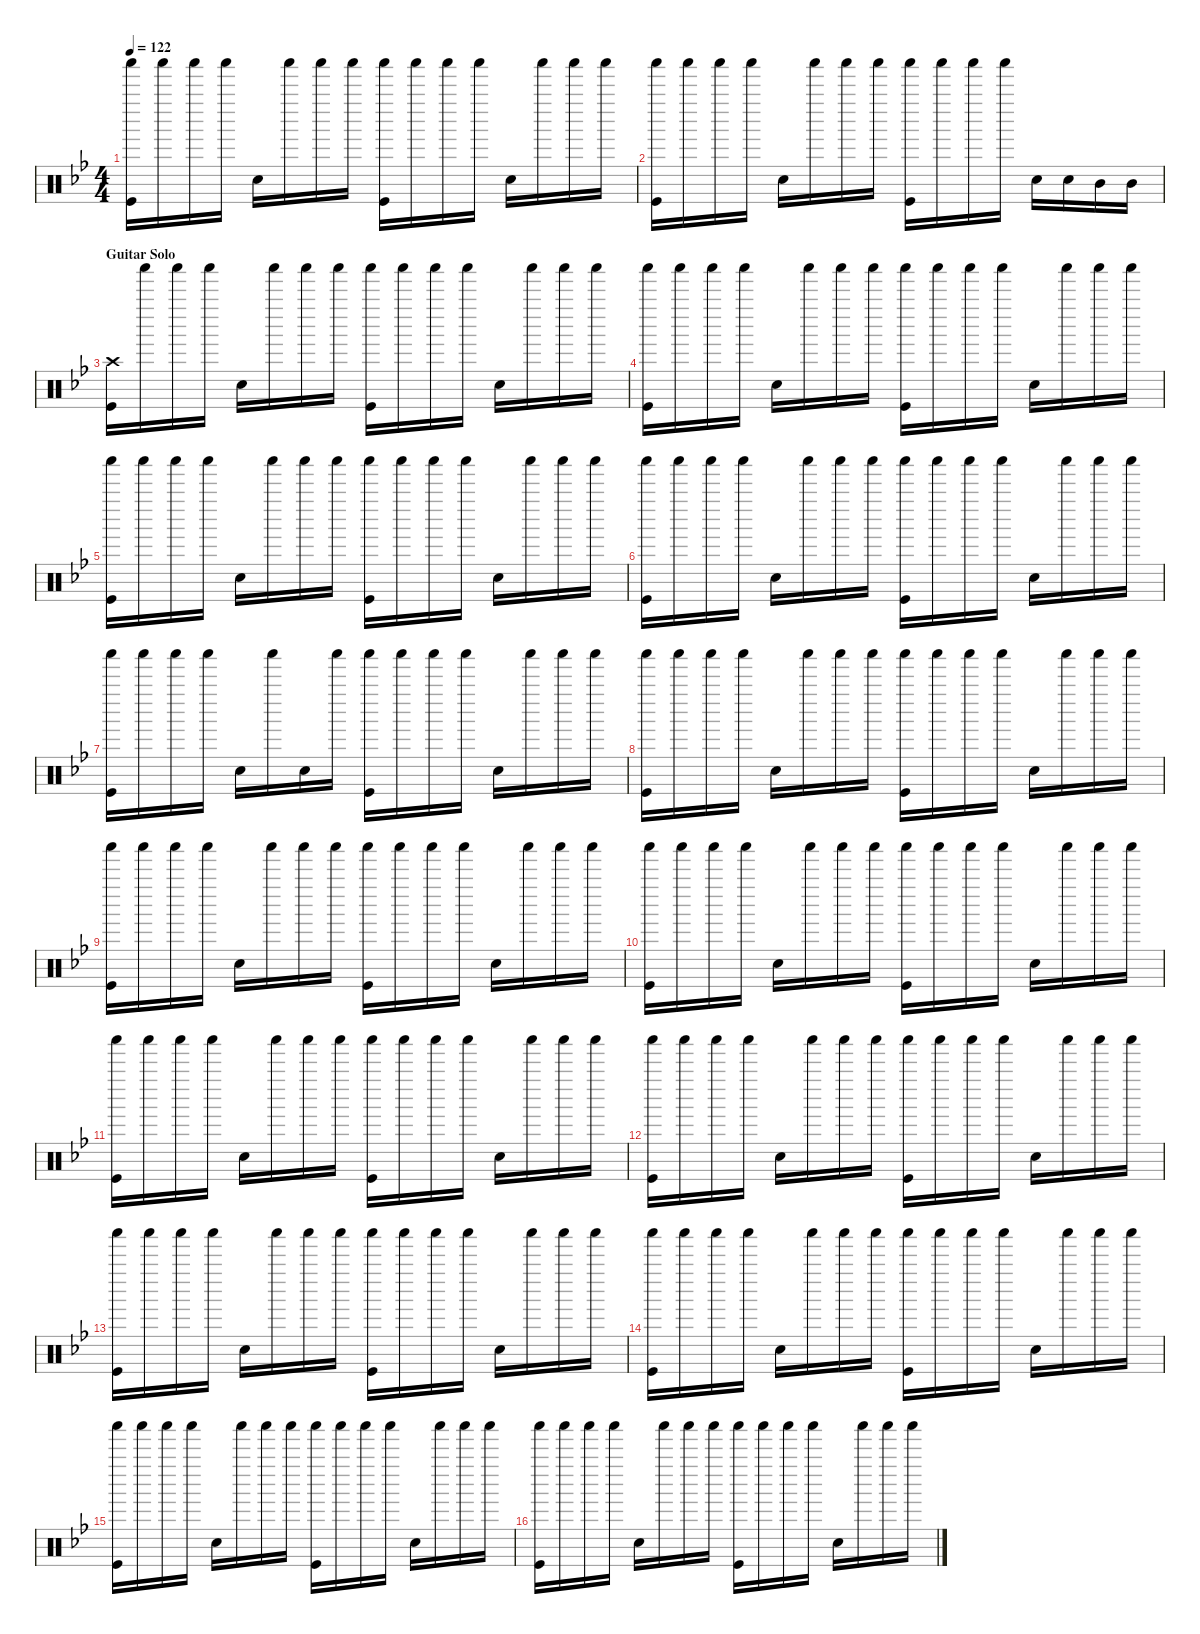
\defaultSystemsLayout 4
\hideDynamics
\bracketExtendMode nobrackets
\singleTrackTrackNamePolicy hidden
\multiTrackTrackNamePolicy hidden
\firstSystemTrackNameMode fullname
\firstSystemTrackNameOrientation horizontal
\otherSystemsTrackNameOrientation horizontal
\track ("Percussions" "drm.") {instrument percussion}
\staff {score}
\articulation defaults
\ts (4 4)
\tempo 122
\clef neutral
\ks bb
("Shaker (hit)"{acc forcenatural} "Kick (hit)"{acc forcenatural}).16{dy f beam Down} "Shaker (hit)"{acc forcenatural}.16{dy mp beam Down} "Shaker (hit)"{acc forcenatural}.16{beam Down} "Shaker (hit)"{acc forcenatural}.16{beam Down} "Snare (hit) 2"{acc forcenatural}.16{dy f beam Down} "Shaker (hit)"{acc forcenatural}.16{dy mp beam Down} "Shaker (hit)"{acc forcenatural}.16{beam Down} "Shaker (hit)"{acc forcenatural}.16{beam Down} ("Shaker (hit)"{acc forcenatural} "Kick (hit)"{acc forcenatural}).16{dy f beam Down} "Shaker (hit)"{acc forcenatural}.16{dy mp beam Down} "Shaker (hit)"{acc forcenatural}.16{beam Down} "Shaker (hit)"{acc forcenatural}.16{beam Down} "Snare (hit) 2"{acc forcenatural}.16{dy f beam Down} "Shaker (hit)"{acc forcenatural}.16{dy mp beam Down} "Shaker (hit)"{acc forcenatural}.16{beam Down} "Shaker (hit)"{acc forcenatural}.16{beam Down} |
("Shaker (hit)"{acc forcenatural} "Kick (hit)"{acc forcenatural}).16{dy f beam Down} "Shaker (hit)"{acc forcenatural}.16{dy mp beam Down} "Shaker (hit)"{acc forcenatural}.16{beam Down} "Shaker (hit)"{acc forcenatural}.16{beam Down} "Snare (hit) 2"{acc forcenatural}.16{dy f beam Down} "Shaker (hit)"{acc forcenatural}.16{dy mp beam Down} "Shaker (hit)"{acc forcenatural}.16{beam Down} "Shaker (hit)"{acc forcenatural}.16{beam Down} ("Shaker (hit)"{acc forcenatural} "Kick (hit)"{acc forcenatural}).16{dy f beam Down} "Shaker (hit)"{acc forcenatural}.16{dy mp beam Down} "Shaker (hit)"{acc forcenatural}.16{beam Down} "Shaker (hit)"{acc forcenatural}.16{beam Down} "Snare (hit) 2"{acc forcenatural}.16{dy f beam Down} "Snare (hit) 2"{acc forcenatural}.16{beam Down} "Mid Tom (hit)"{acc forcenatural}.16{beam Down} "Mid Tom (hit)"{acc forcenatural}.16{beam Down} |
\section ("" "Guitar Solo")
("Crash high (hit)"{acc forcenatural} "Kick (hit)"{acc forcenatural}).16{beam Down} "Shaker (hit)"{acc forcenatural}.16{dy mp beam Down} "Shaker (hit)"{acc forcenatural}.16{beam Down} "Shaker (hit)"{acc forcenatural}.16{beam Down} "Snare (hit) 2"{acc forcenatural}.16{dy f beam Down} "Shaker (hit)"{acc forcenatural}.16{dy mp beam Down} "Shaker (hit)"{acc forcenatural}.16{beam Down} "Shaker (hit)"{acc forcenatural}.16{beam Down} ("Shaker (hit)"{acc forcenatural} "Kick (hit)"{acc forcenatural}).16{dy f beam Down} "Shaker (hit)"{acc forcenatural}.16{dy mp beam Down} "Shaker (hit)"{acc forcenatural}.16{beam Down} "Shaker (hit)"{acc forcenatural}.16{beam Down} "Snare (hit) 2"{acc forcenatural}.16{dy f beam Down} "Shaker (hit)"{acc forcenatural}.16{dy mp beam Down} "Shaker (hit)"{acc forcenatural}.16{beam Down} "Shaker (hit)"{acc forcenatural}.16{beam Down} |
("Shaker (hit)"{acc forcenatural} "Kick (hit)"{acc forcenatural}).16{dy f beam Down} "Shaker (hit)"{acc forcenatural}.16{dy mp beam Down} "Shaker (hit)"{acc forcenatural}.16{beam Down} "Shaker (hit)"{acc forcenatural}.16{beam Down} "Snare (hit) 2"{acc forcenatural}.16{dy f beam Down} "Shaker (hit)"{acc forcenatural}.16{dy mp beam Down} "Shaker (hit)"{acc forcenatural}.16{beam Down} "Shaker (hit)"{acc forcenatural}.16{beam Down} ("Shaker (hit)"{acc forcenatural} "Kick (hit)"{acc forcenatural}).16{dy f beam Down} "Shaker (hit)"{acc forcenatural}.16{dy mp beam Down} "Shaker (hit)"{acc forcenatural}.16{beam Down} "Shaker (hit)"{acc forcenatural}.16{beam Down} "Snare (hit) 2"{acc forcenatural}.16{dy f beam Down} "Shaker (hit)"{acc forcenatural}.16{dy mp beam Down} "Shaker (hit)"{acc forcenatural}.16{beam Down} "Shaker (hit)"{acc forcenatural}.16{beam Down} |
("Shaker (hit)"{acc forcenatural} "Kick (hit)"{acc forcenatural}).16{dy f beam Down} "Shaker (hit)"{acc forcenatural}.16{dy mp beam Down} "Shaker (hit)"{acc forcenatural}.16{beam Down} "Shaker (hit)"{acc forcenatural}.16{beam Down} "Snare (hit) 2"{acc forcenatural}.16{dy f beam Down} "Shaker (hit)"{acc forcenatural}.16{dy mp beam Down} "Shaker (hit)"{acc forcenatural}.16{beam Down} "Shaker (hit)"{acc forcenatural}.16{beam Down} ("Shaker (hit)"{acc forcenatural} "Kick (hit)"{acc forcenatural}).16{dy f beam Down} "Shaker (hit)"{acc forcenatural}.16{dy mp beam Down} "Shaker (hit)"{acc forcenatural}.16{beam Down} "Shaker (hit)"{acc forcenatural}.16{beam Down} "Snare (hit) 2"{acc forcenatural}.16{dy f beam Down} "Shaker (hit)"{acc forcenatural}.16{dy mp beam Down} "Shaker (hit)"{acc forcenatural}.16{beam Down} "Shaker (hit)"{acc forcenatural}.16{beam Down} |
("Shaker (hit)"{acc forcenatural} "Kick (hit)"{acc forcenatural}).16{dy f beam Down} "Shaker (hit)"{acc forcenatural}.16{dy mp beam Down} "Shaker (hit)"{acc forcenatural}.16{beam Down} "Shaker (hit)"{acc forcenatural}.16{beam Down} "Snare (hit) 2"{acc forcenatural}.16{dy f beam Down} "Shaker (hit)"{acc forcenatural}.16{dy mp beam Down} "Shaker (hit)"{acc forcenatural}.16{beam Down} "Shaker (hit)"{acc forcenatural}.16{beam Down} ("Shaker (hit)"{acc forcenatural} "Kick (hit)"{acc forcenatural}).16{dy f beam Down} "Shaker (hit)"{acc forcenatural}.16{dy mp beam Down} "Shaker (hit)"{acc forcenatural}.16{beam Down} "Shaker (hit)"{acc forcenatural}.16{beam Down} "Snare (hit) 2"{acc forcenatural}.16{dy f beam Down} "Shaker (hit)"{acc forcenatural}.16{dy mp beam Down} "Shaker (hit)"{acc forcenatural}.16{beam Down} "Shaker (hit)"{acc forcenatural}.16{beam Down} |
("Shaker (hit)"{acc forcenatural} "Kick (hit)"{acc forcenatural}).16{dy f beam Down} "Shaker (hit)"{acc forcenatural}.16{dy mp beam Down} "Shaker (hit)"{acc forcenatural}.16{beam Down} "Shaker (hit)"{acc forcenatural}.16{beam Down} "Snare (hit) 2"{acc forcenatural}.16{dy f beam Down} "Shaker (hit)"{acc forcenatural}.16{dy mp beam Down} "Snare (hit) 2"{acc forcenatural}.16{beam Down} "Shaker (hit)"{acc forcenatural}.16{beam Down} ("Shaker (hit)"{acc forcenatural} "Kick (hit)"{acc forcenatural}).16{dy f beam Down} "Shaker (hit)"{acc forcenatural}.16{dy mp beam Down} "Shaker (hit)"{acc forcenatural}.16{beam Down} "Shaker (hit)"{acc forcenatural}.16{beam Down} "Snare (hit) 2"{acc forcenatural}.16{dy f beam Down} "Shaker (hit)"{acc forcenatural}.16{dy mp beam Down} "Shaker (hit)"{acc forcenatural}.16{beam Down} "Shaker (hit)"{acc forcenatural}.16{beam Down} |
("Shaker (hit)"{acc forcenatural} "Kick (hit)"{acc forcenatural}).16{dy f beam Down} "Shaker (hit)"{acc forcenatural}.16{dy mp beam Down} "Shaker (hit)"{acc forcenatural}.16{beam Down} "Shaker (hit)"{acc forcenatural}.16{beam Down} "Snare (hit) 2"{acc forcenatural}.16{dy f beam Down} "Shaker (hit)"{acc forcenatural}.16{dy mp beam Down} "Shaker (hit)"{acc forcenatural}.16{beam Down} "Shaker (hit)"{acc forcenatural}.16{beam Down} ("Shaker (hit)"{acc forcenatural} "Kick (hit)"{acc forcenatural}).16{dy f beam Down} "Shaker (hit)"{acc forcenatural}.16{dy mp beam Down} "Shaker (hit)"{acc forcenatural}.16{beam Down} "Shaker (hit)"{acc forcenatural}.16{beam Down} "Snare (hit) 2"{acc forcenatural}.16{dy f beam Down} "Shaker (hit)"{acc forcenatural}.16{dy mp beam Down} "Shaker (hit)"{acc forcenatural}.16{beam Down} "Shaker (hit)"{acc forcenatural}.16{beam Down} |
("Shaker (hit)"{acc forcenatural} "Kick (hit)"{acc forcenatural}).16{dy f beam Down} "Shaker (hit)"{acc forcenatural}.16{dy mp beam Down} "Shaker (hit)"{acc forcenatural}.16{beam Down} "Shaker (hit)"{acc forcenatural}.16{beam Down} "Snare (hit) 2"{acc forcenatural}.16{dy f beam Down} "Shaker (hit)"{acc forcenatural}.16{dy mp beam Down} "Shaker (hit)"{acc forcenatural}.16{beam Down} "Shaker (hit)"{acc forcenatural}.16{beam Down} ("Shaker (hit)"{acc forcenatural} "Kick (hit)"{acc forcenatural}).16{dy f beam Down} "Shaker (hit)"{acc forcenatural}.16{dy mp beam Down} "Shaker (hit)"{acc forcenatural}.16{beam Down} "Shaker (hit)"{acc forcenatural}.16{beam Down} "Snare (hit) 2"{acc forcenatural}.16{dy f beam Down} "Shaker (hit)"{acc forcenatural}.16{dy mp beam Down} "Shaker (hit)"{acc forcenatural}.16{beam Down} "Shaker (hit)"{acc forcenatural}.16{beam Down} |
("Shaker (hit)"{acc forcenatural} "Kick (hit)"{acc forcenatural}).16{dy f beam Down} "Shaker (hit)"{acc forcenatural}.16{dy mp beam Down} "Shaker (hit)"{acc forcenatural}.16{beam Down} "Shaker (hit)"{acc forcenatural}.16{beam Down} "Snare (hit) 2"{acc forcenatural}.16{dy f beam Down} "Shaker (hit)"{acc forcenatural}.16{dy mp beam Down} "Shaker (hit)"{acc forcenatural}.16{beam Down} "Shaker (hit)"{acc forcenatural}.16{beam Down} ("Shaker (hit)"{acc forcenatural} "Kick (hit)"{acc forcenatural}).16{dy f beam Down} "Shaker (hit)"{acc forcenatural}.16{dy mp beam Down} "Shaker (hit)"{acc forcenatural}.16{beam Down} "Shaker (hit)"{acc forcenatural}.16{beam Down} "Snare (hit) 2"{acc forcenatural}.16{dy f beam Down} "Shaker (hit)"{acc forcenatural}.16{dy mp beam Down} "Shaker (hit)"{acc forcenatural}.16{beam Down} "Shaker (hit)"{acc forcenatural}.16{beam Down} |
("Shaker (hit)"{acc forcenatural} "Kick (hit)"{acc forcenatural}).16{dy f beam Down} "Shaker (hit)"{acc forcenatural}.16{dy mp beam Down} "Shaker (hit)"{acc forcenatural}.16{beam Down} "Shaker (hit)"{acc forcenatural}.16{beam Down} "Snare (hit) 2"{acc forcenatural}.16{dy f beam Down} "Shaker (hit)"{acc forcenatural}.16{dy mp beam Down} "Shaker (hit)"{acc forcenatural}.16{beam Down} "Shaker (hit)"{acc forcenatural}.16{beam Down} ("Shaker (hit)"{acc forcenatural} "Kick (hit)"{acc forcenatural}).16{dy f beam Down} "Shaker (hit)"{acc forcenatural}.16{dy mp beam Down} "Shaker (hit)"{acc forcenatural}.16{beam Down} "Shaker (hit)"{acc forcenatural}.16{beam Down} "Snare (hit) 2"{acc forcenatural}.16{dy f beam Down} "Shaker (hit)"{acc forcenatural}.16{dy mp beam Down} "Shaker (hit)"{acc forcenatural}.16{beam Down} "Shaker (hit)"{acc forcenatural}.16{beam Down} |
("Shaker (hit)"{acc forcenatural} "Kick (hit)"{acc forcenatural}).16{dy f beam Down} "Shaker (hit)"{acc forcenatural}.16{dy mp beam Down} "Shaker (hit)"{acc forcenatural}.16{beam Down} "Shaker (hit)"{acc forcenatural}.16{beam Down} "Snare (hit) 2"{acc forcenatural}.16{dy f beam Down} "Shaker (hit)"{acc forcenatural}.16{dy mp beam Down} "Shaker (hit)"{acc forcenatural}.16{beam Down} "Shaker (hit)"{acc forcenatural}.16{beam Down} ("Shaker (hit)"{acc forcenatural} "Kick (hit)"{acc forcenatural}).16{dy f beam Down} "Shaker (hit)"{acc forcenatural}.16{dy mp beam Down} "Shaker (hit)"{acc forcenatural}.16{beam Down} "Shaker (hit)"{acc forcenatural}.16{beam Down} "Snare (hit) 2"{acc forcenatural}.16{dy f beam Down} "Shaker (hit)"{acc forcenatural}.16{dy mp beam Down} "Shaker (hit)"{acc forcenatural}.16{beam Down} "Shaker (hit)"{acc forcenatural}.16{beam Down} |
("Shaker (hit)"{acc forcenatural} "Kick (hit)"{acc forcenatural}).16{dy f beam Down} "Shaker (hit)"{acc forcenatural}.16{dy mp beam Down} "Shaker (hit)"{acc forcenatural}.16{beam Down} "Shaker (hit)"{acc forcenatural}.16{beam Down} "Snare (hit) 2"{acc forcenatural}.16{dy f beam Down} "Shaker (hit)"{acc forcenatural}.16{dy mp beam Down} "Shaker (hit)"{acc forcenatural}.16{beam Down} "Shaker (hit)"{acc forcenatural}.16{beam Down} ("Shaker (hit)"{acc forcenatural} "Kick (hit)"{acc forcenatural}).16{dy f beam Down} "Shaker (hit)"{acc forcenatural}.16{dy mp beam Down} "Shaker (hit)"{acc forcenatural}.16{beam Down} "Shaker (hit)"{acc forcenatural}.16{beam Down} "Snare (hit) 2"{acc forcenatural}.16{dy f beam Down} "Shaker (hit)"{acc forcenatural}.16{dy mp beam Down} "Shaker (hit)"{acc forcenatural}.16{beam Down} "Shaker (hit)"{acc forcenatural}.16{beam Down} |
("Shaker (hit)"{acc forcenatural} "Kick (hit)"{acc forcenatural}).16{dy f beam Down} "Shaker (hit)"{acc forcenatural}.16{dy mp beam Down} "Shaker (hit)"{acc forcenatural}.16{beam Down} "Shaker (hit)"{acc forcenatural}.16{beam Down} "Snare (hit) 2"{acc forcenatural}.16{dy f beam Down} "Shaker (hit)"{acc forcenatural}.16{dy mp beam Down} "Shaker (hit)"{acc forcenatural}.16{beam Down} "Shaker (hit)"{acc forcenatural}.16{beam Down} ("Shaker (hit)"{acc forcenatural} "Kick (hit)"{acc forcenatural}).16{dy f beam Down} "Shaker (hit)"{acc forcenatural}.16{dy mp beam Down} "Shaker (hit)"{acc forcenatural}.16{beam Down} "Shaker (hit)"{acc forcenatural}.16{beam Down} "Snare (hit) 2"{acc forcenatural}.16{dy f beam Down} "Shaker (hit)"{acc forcenatural}.16{dy mp beam Down} "Shaker (hit)"{acc forcenatural}.16{beam Down} "Shaker (hit)"{acc forcenatural}.16{beam Down} |
("Shaker (hit)"{acc forcenatural} "Kick (hit)"{acc forcenatural}).16{dy f beam Down} "Shaker (hit)"{acc forcenatural}.16{dy mp beam Down} "Shaker (hit)"{acc forcenatural}.16{beam Down} "Shaker (hit)"{acc forcenatural}.16{beam Down} "Snare (hit) 2"{acc forcenatural}.16{dy f beam Down} "Shaker (hit)"{acc forcenatural}.16{dy mp beam Down} "Shaker (hit)"{acc forcenatural}.16{beam Down} "Shaker (hit)"{acc forcenatural}.16{beam Down} ("Shaker (hit)"{acc forcenatural} "Kick (hit)"{acc forcenatural}).16{dy f beam Down} "Shaker (hit)"{acc forcenatural}.16{dy mp beam Down} "Shaker (hit)"{acc forcenatural}.16{beam Down} "Shaker (hit)"{acc forcenatural}.16{beam Down} "Snare (hit) 2"{acc forcenatural}.16{dy f beam Down} "Shaker (hit)"{acc forcenatural}.16{dy mp beam Down} "Shaker (hit)"{acc forcenatural}.16{beam Down} "Shaker (hit)"{acc forcenatural}.16{beam Down} |
("Shaker (hit)"{acc forcenatural} "Kick (hit)"{acc forcenatural}).16{dy f beam Down} "Shaker (hit)"{acc forcenatural}.16{dy mp beam Down} "Shaker (hit)"{acc forcenatural}.16{beam Down} "Shaker (hit)"{acc forcenatural}.16{beam Down} "Snare (hit) 2"{acc forcenatural}.16{dy f beam Down} "Shaker (hit)"{acc forcenatural}.16{dy mp beam Down} "Shaker (hit)"{acc forcenatural}.16{beam Down} "Shaker (hit)"{acc forcenatural}.16{beam Down} ("Shaker (hit)"{acc forcenatural} "Kick (hit)"{acc forcenatural}).16{dy f beam Down} "Shaker (hit)"{acc forcenatural}.16{dy mp beam Down} "Shaker (hit)"{acc forcenatural}.16{beam Down} "Shaker (hit)"{acc forcenatural}.16{beam Down} "Snare (hit) 2"{acc forcenatural}.16{dy f beam Down} "Shaker (hit)"{acc forcenatural}.16{dy mp beam Down} "Shaker (hit)"{acc forcenatural}.16{beam Down} "Shaker (hit)"{acc forcenatural}.16{beam Down}
